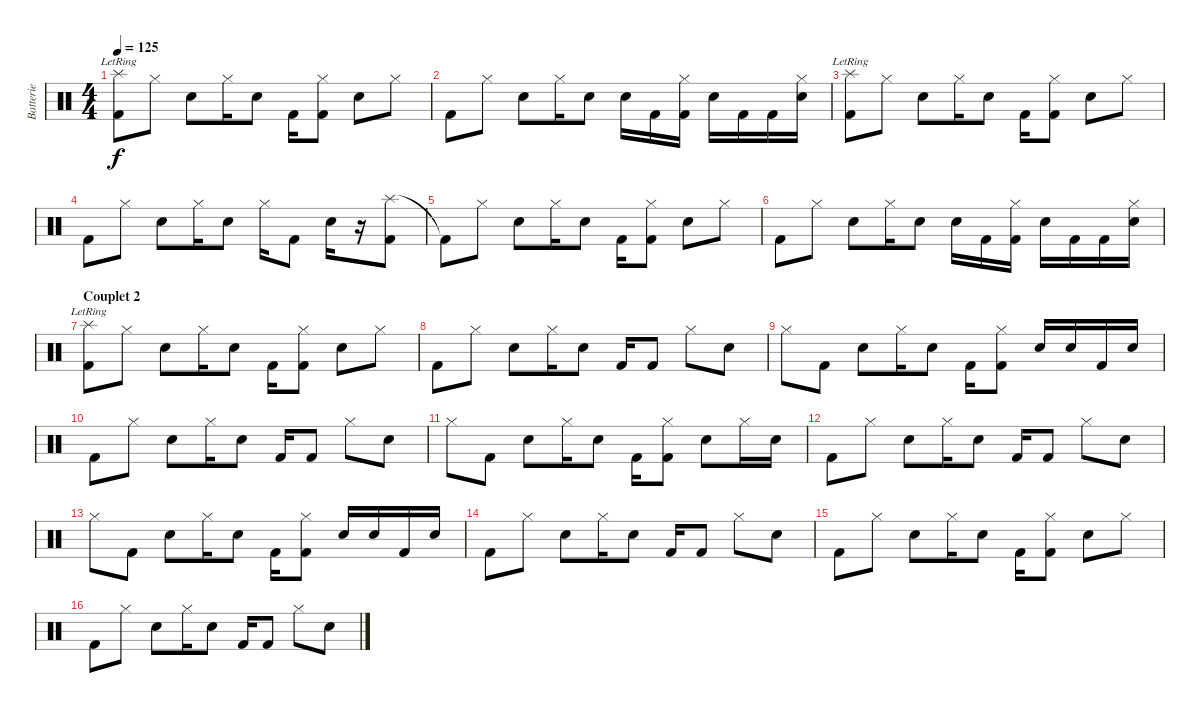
\track ("Batterie" "Batterie") {instrument percussion}
\staff {score}
\articulation defaults
\ts (4 4)
\tempo 125
\clef neutral
\ks c
("Splash (hit)"{lr} "Kick (hit) 2").8{dy f} "Hi-Hat (closed)".8 "Electric Snare (hit)".8 "Hi-Hat (closed)".16 "Electric Snare (hit)".8 "Kick (hit) 2".16 ("Hi-Hat (closed)" "Kick (hit) 2").8 "Electric Snare (hit)".8 "Hi-Hat (closed)".8 |
"Kick (hit) 2".8 "Hi-Hat (closed)".8 "Electric Snare (hit)".8 "Hi-Hat (closed)".16 "Electric Snare (hit)".8 "Electric Snare (hit)".16 "Kick (hit) 2".16 ("Hi-Hat (closed)" "Kick (hit) 2").16 "Electric Snare (hit)".16 "Kick (hit) 2".16 "Kick (hit) 2".16 ("Electric Snare (hit)" "Hi-Hat (closed)").16 |
("Splash (hit)"{lr} "Kick (hit) 2").8 "Hi-Hat (closed)".8 "Electric Snare (hit)".8 "Hi-Hat (closed)".16 "Electric Snare (hit)".8 "Kick (hit) 2".16 ("Hi-Hat (closed)" "Kick (hit) 2").8 "Electric Snare (hit)".8 "Hi-Hat (closed)".8 |
"Kick (hit) 2".8 "Hi-Hat (closed)".8 "Electric Snare (hit)".8 "Hi-Hat (closed)".16 "Electric Snare (hit)".8 "Hi-Hat (closed)".16 "Kick (hit) 2".8 "Electric Snare (hit)".16 r.16 ("Splash (hit)" "Kick (hit) 2").8 |
"Kick (hit) 2"{t}.8 "Hi-Hat (closed)".8 "Electric Snare (hit)".8 "Hi-Hat (closed)".16 "Electric Snare (hit)".8 "Kick (hit) 2".16 ("Hi-Hat (closed)" "Kick (hit) 2").8 "Electric Snare (hit)".8 "Hi-Hat (closed)".8 |
"Kick (hit) 2".8 "Hi-Hat (closed)".8 "Electric Snare (hit)".8 "Hi-Hat (closed)".16 "Electric Snare (hit)".8 "Electric Snare (hit)".16 "Kick (hit) 2".16 ("Hi-Hat (closed)" "Kick (hit) 2").16 "Electric Snare (hit)".16 "Kick (hit) 2".16 "Kick (hit) 2".16 ("Electric Snare (hit)" "Hi-Hat (closed)").16 |
\section ("" "Couplet 2")
("Splash (hit)"{lr} "Kick (hit) 2").8 "Hi-Hat (closed)".8 "Electric Snare (hit)".8 "Hi-Hat (closed)".16 "Electric Snare (hit)".8 "Kick (hit) 2".16 ("Hi-Hat (closed)" "Kick (hit) 2").8 "Electric Snare (hit)".8 "Hi-Hat (closed)".8 |
"Kick (hit) 2".8 "Hi-Hat (closed)".8 "Electric Snare (hit)".8 "Hi-Hat (closed)".16 "Electric Snare (hit)".8 "Kick (hit) 2".16 "Kick (hit) 2".8 "Hi-Hat (closed)".8 "Electric Snare (hit)".8 |
"Hi-Hat (closed)".8 "Kick (hit) 2".8 "Electric Snare (hit)".8 "Hi-Hat (closed)".16 "Electric Snare (hit)".8 "Kick (hit) 2".16 ("Hi-Hat (closed)" "Kick (hit) 2").8 "Electric Snare (hit)".16 "Electric Snare (hit)".16 "Kick (hit) 2".16 "Electric Snare (hit)".16 |
"Kick (hit) 2".8 "Hi-Hat (closed)".8 "Electric Snare (hit)".8 "Hi-Hat (closed)".16 "Electric Snare (hit)".8 "Kick (hit) 2".16 "Kick (hit) 2".8 "Hi-Hat (closed)".8 "Electric Snare (hit)".8 |
"Hi-Hat (closed)".8 "Kick (hit) 2".8 "Electric Snare (hit)".8 "Hi-Hat (closed)".16 "Electric Snare (hit)".8 "Kick (hit) 2".16 ("Hi-Hat (closed)" "Kick (hit) 2").8 "Electric Snare (hit)".8 "Hi-Hat (closed)".16 "Electric Snare (hit)".16 |
"Kick (hit) 2".8 "Hi-Hat (closed)".8 "Electric Snare (hit)".8 "Hi-Hat (closed)".16 "Electric Snare (hit)".8 "Kick (hit) 2".16 "Kick (hit) 2".8 "Hi-Hat (closed)".8 "Electric Snare (hit)".8 |
"Hi-Hat (closed)".8 "Kick (hit) 2".8 "Electric Snare (hit)".8 "Hi-Hat (closed)".16 "Electric Snare (hit)".8 "Kick (hit) 2".16 ("Hi-Hat (closed)" "Kick (hit) 2").8 "Electric Snare (hit)".16 "Electric Snare (hit)".16 "Kick (hit) 2".16 "Electric Snare (hit)".16 |
"Kick (hit) 2".8 "Hi-Hat (closed)".8 "Electric Snare (hit)".8 "Hi-Hat (closed)".16 "Electric Snare (hit)".8 "Kick (hit) 2".16 "Kick (hit) 2".8 "Hi-Hat (closed)".8 "Electric Snare (hit)".8 |
"Kick (hit) 2".8 "Hi-Hat (closed)".8 "Electric Snare (hit)".8 "Hi-Hat (closed)".16 "Electric Snare (hit)".8 "Kick (hit) 2".16 ("Hi-Hat (closed)" "Kick (hit) 2").8 "Electric Snare (hit)".8 "Hi-Hat (closed)".8 |
"Kick (hit) 2".8 "Hi-Hat (closed)".8 "Electric Snare (hit)".8 "Hi-Hat (closed)".16 "Electric Snare (hit)".8 "Kick (hit) 2".16 "Kick (hit) 2".8 "Hi-Hat (closed)".8 "Electric Snare (hit)".8
